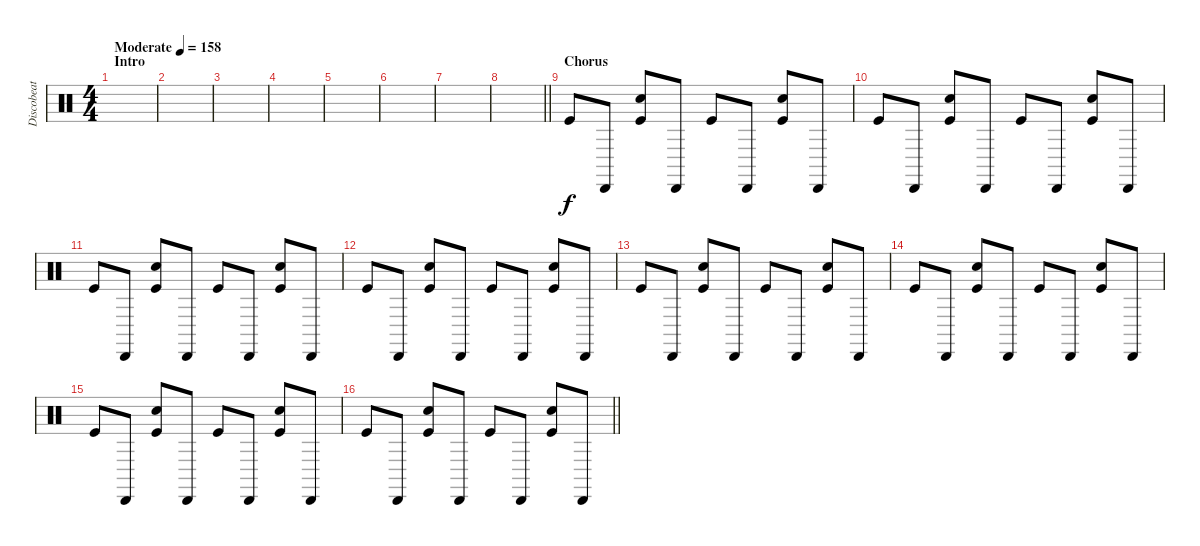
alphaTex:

\track ("Discobeat" "Discobeat") {instrument percussion}
\staff {score}
\articulation defaults
\ts (4 4)
\section ("" "Intro")
\tempo (158 "Moderate")
\clef neutral
\ks c
|
|
|
|
|
|
|
\barLineRight lightlight
|
\section ("" "Chorus")
"Kick (hit)".8 "Cabasa (hit)".8 ("Kick (hit)" "Electric Snare (hit)").8 "Cabasa (hit)".8 "Kick (hit)".8 "Cabasa (hit)".8 ("Kick (hit)" "Electric Snare (hit)").8 "Cabasa (hit)".8 |
"Kick (hit)".8 "Cabasa (hit)".8 ("Kick (hit)" "Electric Snare (hit)").8 "Cabasa (hit)".8 "Kick (hit)".8 "Cabasa (hit)".8 ("Kick (hit)" "Electric Snare (hit)").8 "Cabasa (hit)".8 |
"Kick (hit)".8 "Cabasa (hit)".8 ("Kick (hit)" "Electric Snare (hit)").8 "Cabasa (hit)".8 "Kick (hit)".8 "Cabasa (hit)".8 ("Kick (hit)" "Electric Snare (hit)").8 "Cabasa (hit)".8 |
"Kick (hit)".8 "Cabasa (hit)".8 ("Kick (hit)" "Electric Snare (hit)").8 "Cabasa (hit)".8 "Kick (hit)".8 "Cabasa (hit)".8 ("Kick (hit)" "Electric Snare (hit)").8 "Cabasa (hit)".8 |
"Kick (hit)".8 "Cabasa (hit)".8 ("Kick (hit)" "Electric Snare (hit)").8 "Cabasa (hit)".8 "Kick (hit)".8 "Cabasa (hit)".8 ("Kick (hit)" "Electric Snare (hit)").8 "Cabasa (hit)".8 |
"Kick (hit)".8 "Cabasa (hit)".8 ("Kick (hit)" "Electric Snare (hit)").8 "Cabasa (hit)".8 "Kick (hit)".8 "Cabasa (hit)".8 ("Kick (hit)" "Electric Snare (hit)").8 "Cabasa (hit)".8 |
"Kick (hit)".8 "Cabasa (hit)".8 ("Kick (hit)" "Electric Snare (hit)").8 "Cabasa (hit)".8 "Kick (hit)".8 "Cabasa (hit)".8 ("Kick (hit)" "Electric Snare (hit)").8 "Cabasa (hit)".8 |
\barLineRight lightlight "Kick (hit)".8 "Cabasa (hit)".8
("Kick (hit)" "Electric Snare (hit)").8 "Cabasa (hit)".8 "Kick (hit)".8 "Cabasa (hit)".8 ("Kick (hit)" "Electric Snare (hit)").8 "Cabasa (hit)".8
